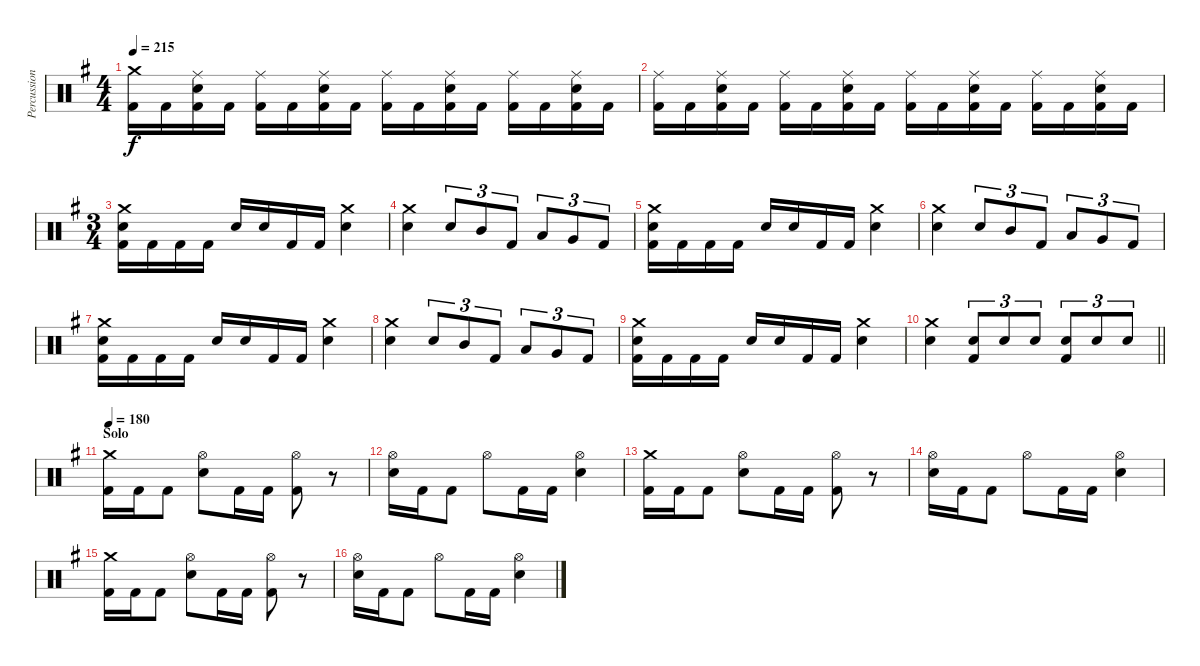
\track ("Percussion" "Percussion") {instrument percussion}
\staff {score}
\articulation defaults
\ts (4 4)
\tempo 215
\clef neutral
\ks eminor
("Crash medium (hit)" "Kick (hit) 2").16{dy f} "Kick (hit) 2".16 ("Ride (middle)" "Electric Snare (hit)" "Kick (hit) 2").16 "Kick (hit) 2".16 ("Ride (middle)" "Kick (hit) 2").16 "Kick (hit) 2".16 ("Ride (middle)" "Electric Snare (hit)" "Kick (hit) 2").16 "Kick (hit) 2".16 ("Ride (middle)" "Kick (hit) 2").16 "Kick (hit) 2".16 ("Ride (middle)" "Electric Snare (hit)" "Kick (hit) 2").16 "Kick (hit) 2".16 ("Ride (middle)" "Kick (hit) 2").16 "Kick (hit) 2".16 ("Ride (middle)" "Electric Snare (hit)" "Kick (hit) 2").16 "Kick (hit) 2".16 |
("Ride (middle)" "Kick (hit) 2").16 "Kick (hit) 2".16 ("Ride (middle)" "Electric Snare (hit)" "Kick (hit) 2").16 "Kick (hit) 2".16 ("Ride (middle)" "Kick (hit) 2").16 "Kick (hit) 2".16 ("Ride (middle)" "Electric Snare (hit)" "Kick (hit) 2").16 "Kick (hit) 2".16 ("Ride (middle)" "Kick (hit) 2").16 "Kick (hit) 2".16 ("Ride (middle)" "Electric Snare (hit)" "Kick (hit) 2").16 "Kick (hit) 2".16 ("Ride (middle)" "Kick (hit) 2").16 "Kick (hit) 2".16 ("Ride (middle)" "Electric Snare (hit)" "Kick (hit) 2").16 "Kick (hit) 2".16 |
\ts (3 4)
("Crash medium (hit)" "Electric Snare (hit)" "Kick (hit) 2").16 "Kick (hit) 2".16 "Kick (hit) 2".16 "Kick (hit) 2".16 "Electric Snare (hit)".16 "Electric Snare (hit)".16 "Kick (hit) 2".16 "Kick (hit) 2".16 ("Crash medium (hit)" "Electric Snare (hit)").4 |
("Crash medium (hit)" "Electric Snare (hit)").4 "Electric Snare (hit)".8{tu (3 2)} "Mid Tom (hit)".8{tu (3 2)} "Kick (hit) 2".8{tu (3 2)} "Low Tom (hit)".8{tu (3 2)} "Very Low Tom (hit)".8{tu (3 2)} "Kick (hit) 2".8{tu (3 2)} |
("Crash medium (hit)" "Electric Snare (hit)" "Kick (hit) 2").16 "Kick (hit) 2".16 "Kick (hit) 2".16 "Kick (hit) 2".16 "Electric Snare (hit)".16 "Electric Snare (hit)".16 "Kick (hit) 2".16 "Kick (hit) 2".16 ("Crash medium (hit)" "Electric Snare (hit)").4 |
("Crash medium (hit)" "Electric Snare (hit)").4 "Electric Snare (hit)".8{tu (3 2)} "Mid Tom (hit)".8{tu (3 2)} "Kick (hit) 2".8{tu (3 2)} "Low Tom (hit)".8{tu (3 2)} "Very Low Tom (hit)".8{tu (3 2)} "Kick (hit) 2".8{tu (3 2)} |
("Crash medium (hit)" "Electric Snare (hit)" "Kick (hit) 2").16 "Kick (hit) 2".16 "Kick (hit) 2".16 "Kick (hit) 2".16 "Electric Snare (hit)".16 "Electric Snare (hit)".16 "Kick (hit) 2".16 "Kick (hit) 2".16 ("Crash medium (hit)" "Electric Snare (hit)").4 |
("Crash medium (hit)" "Electric Snare (hit)").4 "Electric Snare (hit)".8{tu (3 2)} "Mid Tom (hit)".8{tu (3 2)} "Kick (hit) 2".8{tu (3 2)} "Low Tom (hit)".8{tu (3 2)} "Very Low Tom (hit)".8{tu (3 2)} "Kick (hit) 2".8{tu (3 2)} |
("Crash medium (hit)" "Electric Snare (hit)" "Kick (hit) 2").16 "Kick (hit) 2".16 "Kick (hit) 2".16 "Kick (hit) 2".16 "Electric Snare (hit)".16 "Electric Snare (hit)".16 "Kick (hit) 2".16 "Kick (hit) 2".16 ("Crash medium (hit)" "Electric Snare (hit)").4 |
\barLineRight lightlight
("Crash medium (hit)" "Electric Snare (hit)").4 ("Electric Snare (hit)" "Kick (hit) 2").8{tu (3 2)} "Electric Snare (hit)".8{tu (3 2)} "Electric Snare (hit)".8{tu (3 2)} ("Electric Snare (hit)" "Kick (hit) 2").8{tu (3 2)} "Electric Snare (hit)".8{tu (3 2)} "Electric Snare (hit)".8{tu (3 2)} |
\section ("" "Solo")
\tempo 180
("Crash medium (hit)" "Kick (hit) 2").16 "Kick (hit) 2".16 "Kick (hit) 2".8 ("Hi-Hat (open)" "Electric Snare (hit)").8 "Kick (hit) 2".16 "Kick (hit) 2".16 ("Hi-Hat (open)" "Kick (hit) 2").8 r.8 |
("Hi-Hat (open)" "Electric Snare (hit)").16 "Kick (hit) 2".16 "Kick (hit) 2".8 "Hi-Hat (open)".8 "Kick (hit) 2".16 "Kick (hit) 2".16 ("Hi-Hat (open)" "Electric Snare (hit)").4 |
("Crash medium (hit)" "Kick (hit) 2").16 "Kick (hit) 2".16 "Kick (hit) 2".8 ("Hi-Hat (open)" "Electric Snare (hit)").8 "Kick (hit) 2".16 "Kick (hit) 2".16 ("Hi-Hat (open)" "Kick (hit) 2").8 r.8 |
("Hi-Hat (open)" "Electric Snare (hit)").16 "Kick (hit) 2".16 "Kick (hit) 2".8 "Hi-Hat (open)".8 "Kick (hit) 2".16 "Kick (hit) 2".16 ("Hi-Hat (open)" "Electric Snare (hit)").4 |
("Crash medium (hit)" "Kick (hit) 2").16 "Kick (hit) 2".16 "Kick (hit) 2".8 ("Hi-Hat (open)" "Electric Snare (hit)").8 "Kick (hit) 2".16 "Kick (hit) 2".16 ("Hi-Hat (open)" "Kick (hit) 2").8 r.8 |
("Hi-Hat (open)" "Electric Snare (hit)").16 "Kick (hit) 2".16 "Kick (hit) 2".8 "Hi-Hat (open)".8 "Kick (hit) 2".16 "Kick (hit) 2".16 ("Hi-Hat (open)" "Electric Snare (hit)").4
